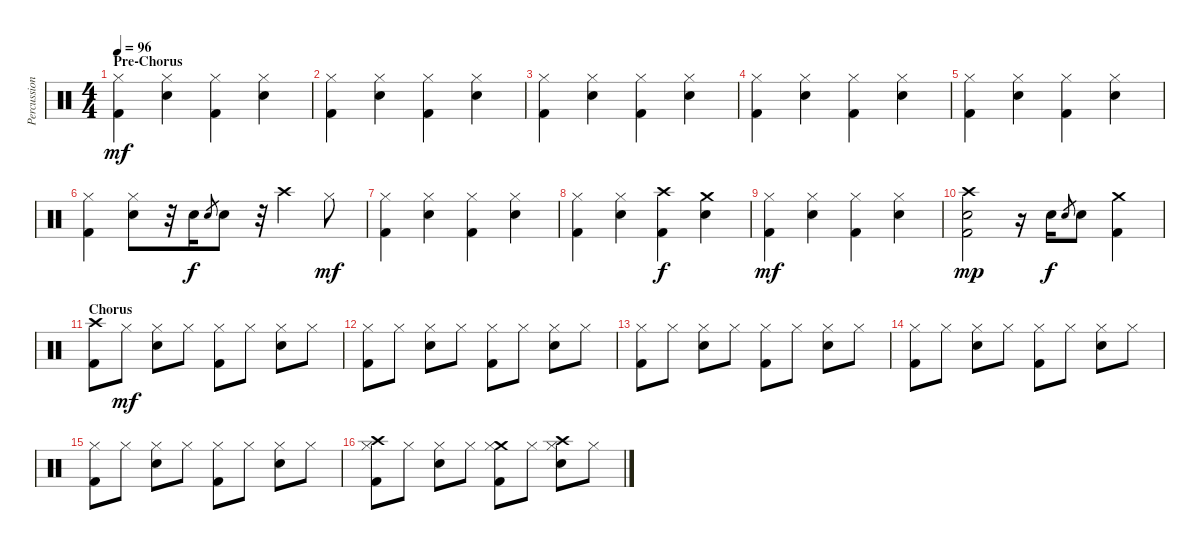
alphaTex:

\track ("Percussion - Roger Taylor" "Percussion") {instrument percussion}
\staff {score}
\articulation defaults
\ts (4 4)
\section ("" "Pre-Chorus")
\tempo 96
\clef neutral
\ks c
("Hi-Hat (closed)" "Kick (hit) 2").4{dy mf} ("Hi-Hat (closed)" "Electric Snare (hit)").4 ("Hi-Hat (closed)" "Kick (hit) 2").4 ("Hi-Hat (closed)" "Electric Snare (hit)").4 |
("Hi-Hat (closed)" "Kick (hit) 2").4 ("Hi-Hat (closed)" "Electric Snare (hit)").4 ("Hi-Hat (closed)" "Kick (hit) 2").4 ("Hi-Hat (closed)" "Electric Snare (hit)").4 |
("Hi-Hat (closed)" "Kick (hit) 2").4 ("Hi-Hat (closed)" "Electric Snare (hit)").4 ("Hi-Hat (closed)" "Kick (hit) 2").4 ("Hi-Hat (closed)" "Electric Snare (hit)").4 |
("Hi-Hat (closed)" "Kick (hit) 2").4 ("Hi-Hat (closed)" "Electric Snare (hit)").4 ("Hi-Hat (closed)" "Kick (hit) 2").4 ("Hi-Hat (closed)" "Electric Snare (hit)").4 |
("Hi-Hat (closed)" "Kick (hit) 2").4 ("Hi-Hat (closed)" "Electric Snare (hit)").4 ("Hi-Hat (closed)" "Kick (hit) 2").4 ("Hi-Hat (closed)" "Electric Snare (hit)").4 |
("Hi-Hat (closed)" "Kick (hit) 2").4 ("Hi-Hat (closed)" "Electric Snare (hit)").8 r.32 "Snare (hit) 2".16{dy f} "Snare (hit) 2".8{gr} "Snare (hit) 2".8 r.32 "Crash high (hit)".4 "Hi-Hat (closed)".8{dy mf} |
("Hi-Hat (closed)" "Kick (hit) 2").4 ("Hi-Hat (closed)" "Electric Snare (hit)").4 ("Hi-Hat (closed)" "Kick (hit) 2").4 ("Hi-Hat (closed)" "Electric Snare (hit)").4 |
("Hi-Hat (closed)" "Kick (hit) 2").4 ("Hi-Hat (closed)" "Electric Snare (hit)").4 ("Crash high (hit)" "Kick (hit) 2").4{dy f} ("Crash medium (hit)" "Electric Snare (hit)").4 |
("Hi-Hat (closed)" "Kick (hit) 2").4{dy mf} ("Hi-Hat (closed)" "Electric Snare (hit)").4 ("Hi-Hat (closed)" "Kick (hit) 2").4 ("Hi-Hat (closed)" "Electric Snare (hit)").4 |
("Crash high (hit)" "Electric Snare (hit)" "Kick (hit) 2").2{dy mp} r.16 "Snare (hit) 2".16{dy f} "Snare (hit) 2".8{gr} "Snare (hit) 2".8 ("Crash medium (hit)" "Kick (hit) 2").4 |
\section ("" "Chorus")
("Crash high (hit)" "Kick (hit) 2").8 "Hi-Hat (closed)".8{dy mf} ("Hi-Hat (closed)" "Electric Snare (hit)").8 "Hi-Hat (closed)".8 ("Hi-Hat (closed)" "Kick (hit) 2").8 "Hi-Hat (closed)".8 ("Hi-Hat (closed)" "Electric Snare (hit)").8 "Hi-Hat (closed)".8 |
("Hi-Hat (closed)" "Kick (hit) 2").8 "Hi-Hat (closed)".8 ("Hi-Hat (closed)" "Electric Snare (hit)").8 "Hi-Hat (closed)".8 ("Hi-Hat (closed)" "Kick (hit) 2").8 "Hi-Hat (closed)".8 ("Hi-Hat (closed)" "Electric Snare (hit)").8 "Hi-Hat (closed)".8 |
("Hi-Hat (closed)" "Kick (hit) 2").8 "Hi-Hat (closed)".8 ("Hi-Hat (closed)" "Electric Snare (hit)").8 "Hi-Hat (closed)".8 ("Hi-Hat (closed)" "Kick (hit) 2").8 "Hi-Hat (closed)".8 ("Hi-Hat (closed)" "Electric Snare (hit)").8 "Hi-Hat (closed)".8 |
("Hi-Hat (closed)" "Kick (hit) 2").8 "Hi-Hat (closed)".8 ("Hi-Hat (closed)" "Electric Snare (hit)").8 "Hi-Hat (closed)".8 ("Hi-Hat (closed)" "Kick (hit) 2").8 "Hi-Hat (closed)".8 ("Hi-Hat (closed)" "Electric Snare (hit)").8 "Hi-Hat (closed)".8 |
("Hi-Hat (closed)" "Kick (hit) 2").8 "Hi-Hat (closed)".8 ("Hi-Hat (closed)" "Electric Snare (hit)").8 "Hi-Hat (closed)".8 ("Hi-Hat (closed)" "Kick (hit) 2").8 "Hi-Hat (closed)".8 ("Hi-Hat (closed)" "Electric Snare (hit)").8 "Hi-Hat (closed)".8 |
("Crash high (hit)" "Hi-Hat (closed)" "Kick (hit) 2").8 "Hi-Hat (closed)".8 ("Hi-Hat (closed)" "Electric Snare (hit)").8 "Hi-Hat (closed)".8 ("Crash medium (hit)" "Hi-Hat (closed)" "Kick (hit) 2").8 "Hi-Hat (closed)".8 ("Crash high (hit)" "Hi-Hat (closed)" "Electric Snare (hit)").8 "Hi-Hat (closed)".8
